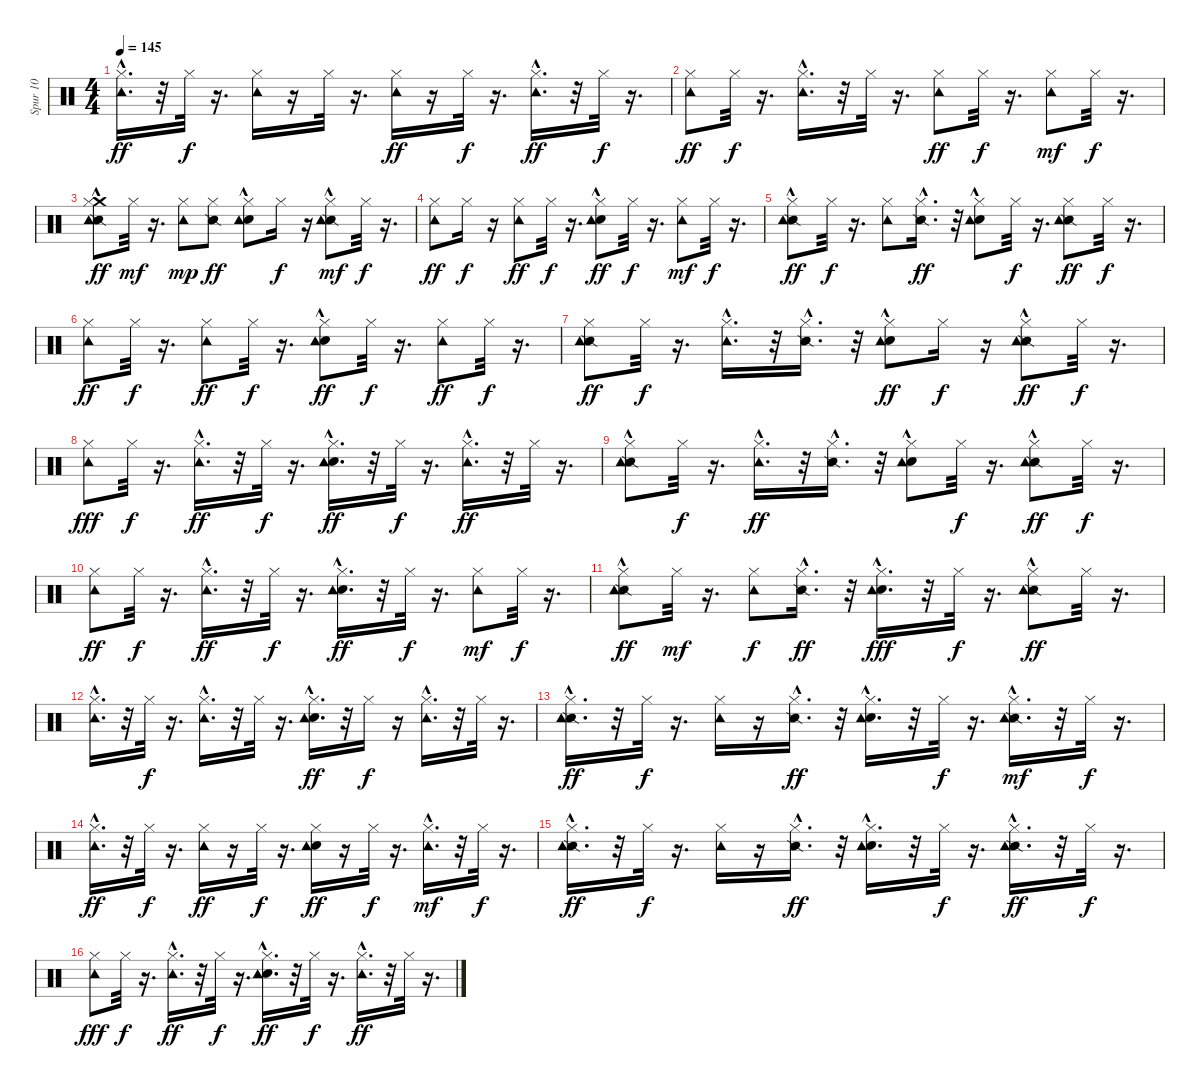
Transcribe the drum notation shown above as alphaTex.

\track ("Spur 10" "Spur 10") {instrument percussion}
\staff {score}
\articulation defaults
\ts (4 4)
\tempo 145
\clef neutral
\ks c
("Tambourine (hit)"{hac} "Hi-Hat (closed)").16{d dy ff} r.32 "Hi-Hat (closed)".32{dy f} r.16{d} ("Tambourine (hit)" "Hi-Hat (closed)").16 r.16 "Hi-Hat (closed)".32 r.16{d} ("Tambourine (hit)" "Hi-Hat (closed)").16{dy ff} r.16 "Hi-Hat (closed)".32{dy f} r.16{d} ("Tambourine (hit)"{hac} "Hi-Hat (closed)").16{d dy ff} r.32 "Hi-Hat (closed)".32{dy f} r.16{d} |
("Tambourine (hit)" "Hi-Hat (closed)").8{dy ff} "Hi-Hat (closed)".32{dy f} r.16{d} ("Tambourine (hit)"{hac} "Hi-Hat (closed)").16{d} r.32 "Hi-Hat (closed)".32 r.16{d} ("Tambourine (hit)" "Hi-Hat (closed)").8{dy ff} "Hi-Hat (closed)".32{dy f} r.16{d} ("Tambourine (hit)" "Hi-Hat (closed)").8{dy mf} "Hi-Hat (closed)".32{dy f} r.16{d} |
("Crash medium (hit)"{hac} "Snare (side stick) 2" "Tambourine (hit)" "Hi-Hat (closed)").8{dy ff} "Hi-Hat (closed)".32{dy mf} r.16{d} ("Tambourine (hit)" "Hi-Hat (closed)").8{dy mp} ("Snare (side stick) 2" "Hi-Hat (closed)").8{dy ff} ("Electric Snare (hit)"{hac} "Tambourine (hit)" "Hi-Hat (closed)").8 "Hi-Hat (closed)".16{dy f} r.16 ("Snare (side stick) 2"{hac} "Tambourine (hit)" "Hi-Hat (closed)").8{dy mf} "Hi-Hat (closed)".32{dy f} r.16{d} |
("Tambourine (hit)" "Hi-Hat (closed)").8{dy ff} "Hi-Hat (closed)".16{dy f} r.16 ("Hi-Hat (closed)" "Tambourine (hit)").8{dy ff} "Hi-Hat (closed)".32{dy f} r.16{d} ("Electric Snare (hit)"{hac} "Tambourine (hit)" "Hi-Hat (closed)").8{dy ff} "Hi-Hat (closed)".32{dy f} r.16{d} ("Tambourine (hit)" "Hi-Hat (closed)").8{dy mf} "Hi-Hat (closed)".32{dy f} r.16{d} |
("Snare (side stick) 2"{hac} "Tambourine (hit)" "Hi-Hat (closed)").8{dy ff} "Hi-Hat (closed)".32{dy f} r.16{d} ("Tambourine (hit)" "Hi-Hat (closed)").8 ("Snare (side stick) 2"{hac} "Hi-Hat (closed)").16{d dy ff} r.32 ("Electric Snare (hit)"{hac} "Tambourine (hit)" "Hi-Hat (closed)").8 "Hi-Hat (closed)".32{dy f} r.16{d} ("Snare (side stick) 2" "Tambourine (hit)" "Hi-Hat (closed)").8{dy ff} "Hi-Hat (closed)".32{dy f} r.16{d} |
("Tambourine (hit)" "Hi-Hat (closed)").8{dy ff} "Hi-Hat (closed)".32{dy f} r.16{d} ("Tambourine (hit)" "Hi-Hat (closed)").8{dy ff} "Hi-Hat (closed)".32{dy f} r.16{d} ("Electric Snare (hit)"{hac} "Tambourine (hit)" "Hi-Hat (closed)").8{dy ff} "Hi-Hat (closed)".32{dy f} r.16{d} ("Tambourine (hit)" "Hi-Hat (closed)").8{dy ff} "Hi-Hat (closed)".32{dy f} r.16{d} |
("Snare (side stick) 2" "Tambourine (hit)" "Hi-Hat (closed)").8{dy ff} "Hi-Hat (closed)".32{dy f} r.16{d} ("Tambourine (hit)"{hac} "Hi-Hat (closed)").16{d} r.32 ("Snare (side stick) 2"{hac} "Hi-Hat (closed)").16{d} r.32 ("Electric Snare (hit)"{hac} "Tambourine (hit)" "Hi-Hat (closed)").8{dy ff} "Hi-Hat (closed)".16{dy f} r.16 ("Snare (side stick) 2"{hac} "Tambourine (hit)" "Hi-Hat (closed)").8{dy ff} "Hi-Hat (closed)".32{dy f} r.16{d} |
("Tambourine (hit)" "Hi-Hat (closed)").8{dy fff} "Hi-Hat (closed)".32{dy f} r.16{d} ("Tambourine (hit)"{hac} "Hi-Hat (closed)").16{d dy ff} r.32 "Hi-Hat (closed)".32{dy f} r.16{d} ("Electric Snare (hit)" "Tambourine (hit)"{hac} "Hi-Hat (closed)").16{d dy ff} r.32 "Hi-Hat (closed)".32{dy f} r.16{d} ("Tambourine (hit)"{hac} "Hi-Hat (closed)").16{d dy ff} r.32 "Hi-Hat (closed)".32 r.16{d} |
("Snare (side stick) 2"{hac} "Tambourine (hit)" "Hi-Hat (closed)").8 "Hi-Hat (closed)".32{dy f} r.16{d} ("Tambourine (hit)"{hac} "Hi-Hat (closed)").16{d dy ff} r.32 ("Snare (side stick) 2"{hac} "Hi-Hat (closed)").16{d} r.32 ("Electric Snare (hit)"{hac} "Tambourine (hit)" "Hi-Hat (closed)").8 "Hi-Hat (closed)".32{dy f} r.16{d} ("Snare (side stick) 2"{hac} "Tambourine (hit)" "Hi-Hat (closed)").8{dy ff} "Hi-Hat (closed)".32{dy f} r.16{d} |
("Tambourine (hit)" "Hi-Hat (closed)").8{dy ff} "Hi-Hat (closed)".32{dy f} r.16{d} ("Tambourine (hit)"{hac} "Hi-Hat (closed)").16{d dy ff} r.32 "Hi-Hat (closed)".32{dy f} r.16{d} ("Electric Snare (hit)"{hac} "Tambourine (hit)"{hac} "Hi-Hat (closed)").16{d dy ff} r.32 "Hi-Hat (closed)".32{dy f} r.16{d} ("Tambourine (hit)" "Hi-Hat (closed)").8{dy mf} "Hi-Hat (closed)".32{dy f} r.16{d} |
("Snare (side stick) 2"{hac} "Tambourine (hit)" "Hi-Hat (closed)").8{dy ff} "Hi-Hat (closed)".32{dy mf} r.16{d} ("Tambourine (hit)" "Hi-Hat (closed)").8{dy f} ("Snare (side stick) 2"{hac} "Hi-Hat (closed)").16{d dy ff} r.32 ("Electric Snare (hit)"{hac} "Tambourine (hit)"{hac} "Hi-Hat (closed)").16{d dy fff} r.32 "Hi-Hat (closed)".32{dy f} r.16{d} ("Snare (side stick) 2"{hac} "Tambourine (hit)" "Hi-Hat (closed)").8{dy ff} "Hi-Hat (closed)".32 r.16{d} |
("Tambourine (hit)"{hac} "Hi-Hat (closed)").16{d} r.32 "Hi-Hat (closed)".32{dy f} r.16{d} ("Tambourine (hit)"{hac} "Hi-Hat (closed)").16{d} r.32 "Hi-Hat (closed)".32 r.16{d} ("Electric Snare (hit)" "Tambourine (hit)"{hac} "Hi-Hat (closed)").16{d dy ff} r.32 "Hi-Hat (closed)".16{dy f} r.16 ("Tambourine (hit)"{hac} "Hi-Hat (closed)").16{d} r.32 "Hi-Hat (closed)".32 r.16{d} |
("Snare (side stick) 2"{hac} "Tambourine (hit)"{hac} "Hi-Hat (closed)").16{d dy ff} r.32 "Hi-Hat (closed)".32{dy f} r.16{d} ("Tambourine (hit)" "Hi-Hat (closed)").16 r.16 ("Snare (side stick) 2"{hac} "Hi-Hat (closed)").16{d dy ff} r.32 ("Electric Snare (hit)"{hac} "Tambourine (hit)"{hac} "Hi-Hat (closed)").16{d} r.32 "Hi-Hat (closed)".32{dy f} r.16{d} ("Snare (side stick) 2"{hac} "Tambourine (hit)"{hac} "Hi-Hat (closed)").16{d dy mf} r.32 "Hi-Hat (closed)".32{dy f} r.16{d} |
("Tambourine (hit)"{hac} "Hi-Hat (closed)").16{d dy ff} r.32 "Hi-Hat (closed)".32{dy f} r.16{d} ("Tambourine (hit)" "Hi-Hat (closed)").16{dy ff} r.16 "Hi-Hat (closed)".32{dy f} r.16{d} ("Electric Snare (hit)" "Tambourine (hit)" "Hi-Hat (closed)").16{dy ff} r.16 "Hi-Hat (closed)".32{dy f} r.16{d} ("Tambourine (hit)"{hac} "Hi-Hat (closed)").16{d dy mf} r.32 "Hi-Hat (closed)".32{dy f} r.16{d} |
("Snare (side stick) 2"{hac} "Tambourine (hit)"{hac} "Hi-Hat (closed)").16{d dy ff} r.32 "Hi-Hat (closed)".32{dy f} r.16{d} ("Tambourine (hit)" "Hi-Hat (closed)").16 r.16 ("Snare (side stick) 2"{hac} "Hi-Hat (closed)").16{d dy ff} r.32 ("Electric Snare (hit)"{hac} "Tambourine (hit)" "Hi-Hat (closed)").16{d} r.32 "Hi-Hat (closed)".32{dy f} r.16{d} ("Snare (side stick) 2" "Tambourine (hit)"{hac} "Hi-Hat (closed)").16{d dy ff} r.32 "Hi-Hat (closed)".32{dy f} r.16{d} |
("Tambourine (hit)" "Hi-Hat (closed)").8{dy fff} "Hi-Hat (closed)".32{dy f} r.16{d} ("Tambourine (hit)"{hac} "Hi-Hat (closed)").16{d dy ff} r.32 "Hi-Hat (closed)".32{dy f} r.16{d} ("Electric Snare (hit)"{hac} "Tambourine (hit)"{hac} "Hi-Hat (closed)").16{d dy ff} r.32 "Hi-Hat (closed)".32{dy f} r.16{d} ("Tambourine (hit)"{hac} "Hi-Hat (closed)").16{d dy ff} r.32 "Hi-Hat (closed)".32 r.16{d}
